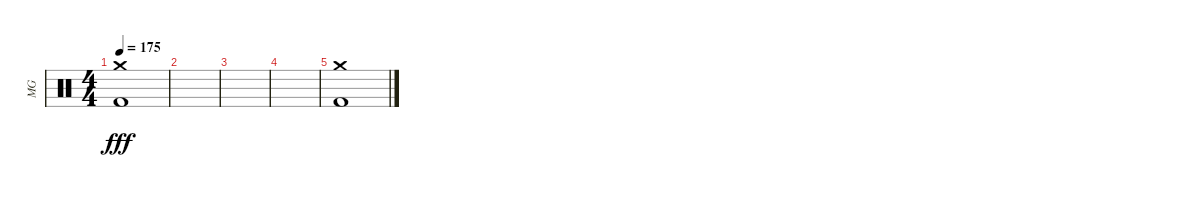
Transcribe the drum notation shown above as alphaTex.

\track ("MG" "MG") {instrument percussion}
\staff {score}
\articulation defaults
\ts (4 4)
\tempo 175
\clef neutral
\ks c
("Crash medium (hit)" "Kick (hit) 2").1{dy fff} |
|
|
|
("Crash medium (hit)" "Kick (hit) 2").1
